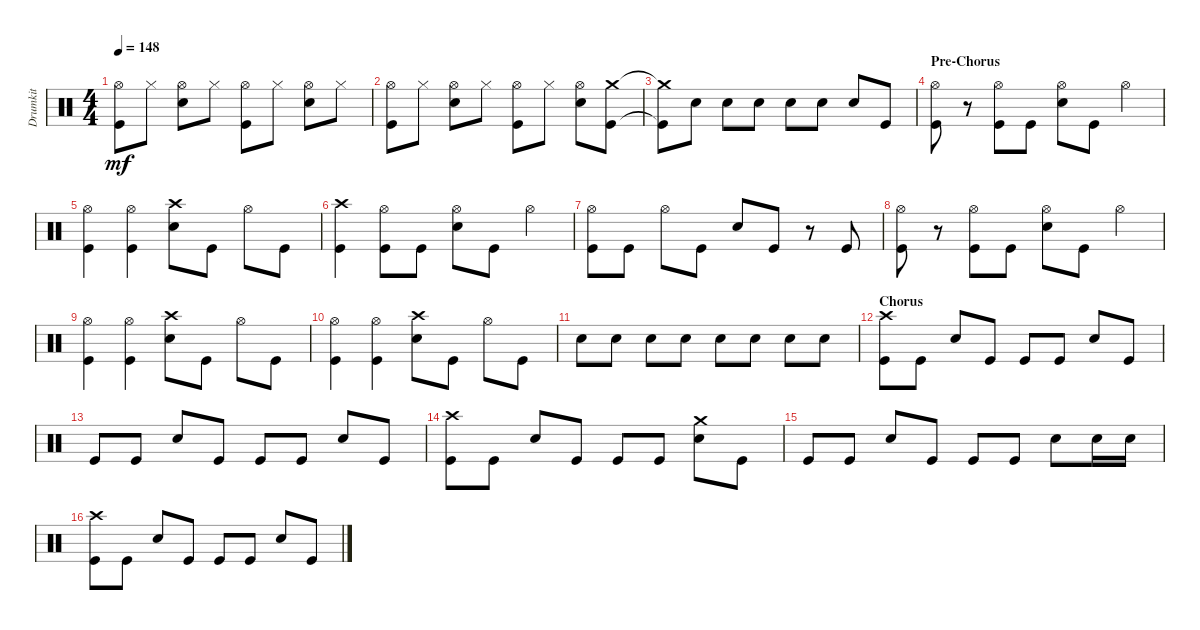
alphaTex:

\track ("Drumkit" "Drumkit") {instrument percussion}
\staff {score}
\articulation defaults
\ts (4 4)
\tempo 148
\clef neutral
\ks c
("Kick (hit)" "Hi-Hat (open)").8{dy mf} "Hi-Hat (closed)".8 ("Snare (hit) 2" "Hi-Hat (open)").8 "Hi-Hat (closed)".8 ("Kick (hit)" "Hi-Hat (open)").8 "Hi-Hat (closed)".8 ("Snare (hit) 2" "Hi-Hat (open)").8 "Hi-Hat (closed)".8 |
("Kick (hit)" "Hi-Hat (open)").8 "Hi-Hat (closed)".8 ("Snare (hit) 2" "Hi-Hat (open)").8 "Hi-Hat (closed)".8 ("Kick (hit)" "Hi-Hat (open)").8 "Hi-Hat (closed)".8 ("Snare (hit) 2" "Hi-Hat (open)").8 ("Crash medium (hit)" "Kick (hit)").8 |
("Crash medium (hit)"{t} "Kick (hit)"{t}).8 "Snare (hit) 2".8 "Snare (hit) 2".8 "Snare (hit) 2".8 "Snare (hit) 2".8 "Snare (hit) 2".8 "Snare (hit) 2".8 "Kick (hit)".8 |
\section ("" "Pre-Chorus")
("Kick (hit)" "Hi-Hat (open)").8 r.8 ("Hi-Hat (open)" "Kick (hit)").8 "Kick (hit)".8 ("Snare (hit) 2" "Hi-Hat (open)").8 "Kick (hit)".8 "Hi-Hat (open)".4 |
("Kick (hit)" "Hi-Hat (open)").4 ("Kick (hit)" "Hi-Hat (open)").4 ("Snare (hit) 2" "Crash high (hit)").8 "Kick (hit)".8 "Hi-Hat (open)".8 "Kick (hit)".8 |
("Kick (hit)" "Crash high (hit)").4 ("Kick (hit)" "Hi-Hat (open)").8 "Kick (hit)".8 ("Snare (hit) 2" "Hi-Hat (open)").8 "Kick (hit)".8 "Hi-Hat (open)".4 |
("Kick (hit)" "Hi-Hat (open)").8 "Kick (hit)".8 "Hi-Hat (open)".8 "Kick (hit)".8 "Snare (hit) 2".8 "Kick (hit)".8 r.8 "Kick (hit)".8 |
("Kick (hit)" "Hi-Hat (open)").8 r.8 ("Hi-Hat (open)" "Kick (hit)").8 "Kick (hit)".8 ("Snare (hit) 2" "Hi-Hat (open)").8 "Kick (hit)".8 "Hi-Hat (open)".4 |
("Kick (hit)" "Hi-Hat (open)").4 ("Kick (hit)" "Hi-Hat (open)").4 ("Snare (hit) 2" "Crash high (hit)").8 "Kick (hit)".8 "Hi-Hat (open)".8 "Kick (hit)".8 |
("Kick (hit)" "Hi-Hat (open)").4 ("Kick (hit)" "Hi-Hat (open)").4 ("Snare (hit) 2" "Crash high (hit)").8 "Kick (hit)".8 "Hi-Hat (open)".8 "Kick (hit)".8 |
"Snare (hit) 2".8 "Snare (hit) 2".8 "Snare (hit) 2".8 "Snare (hit) 2".8 "Snare (hit) 2".8 "Snare (hit) 2".8 "Snare (hit) 2".8 "Snare (hit) 2".8 |
\section ("" "Chorus")
("Kick (hit)" "Crash high (hit)").8 "Kick (hit)".8 "Snare (hit) 2".8 "Kick (hit)".8 "Kick (hit)".8 "Kick (hit)".8 "Snare (hit) 2".8 "Kick (hit)".8 |
"Kick (hit)".8 "Kick (hit)".8 "Snare (hit) 2".8 "Kick (hit)".8 "Kick (hit)".8 "Kick (hit)".8 "Snare (hit) 2".8 "Kick (hit)".8 |
("Kick (hit)" "Crash high (hit)").8 "Kick (hit)".8 "Snare (hit) 2".8 "Kick (hit)".8 "Kick (hit)".8 "Kick (hit)".8 ("Snare (hit) 2" "Crash medium (hit)").8 "Kick (hit)".8 |
"Kick (hit)".8 "Kick (hit)".8 "Snare (hit) 2".8 "Kick (hit)".8 "Kick (hit)".8 "Kick (hit)".8 "Snare (hit) 2".8 "Snare (hit) 2".16 "Snare (hit) 2".16 |
("Kick (hit)" "Crash high (hit)").8 "Kick (hit)".8 "Snare (hit) 2".8 "Kick (hit)".8 "Kick (hit)".8 "Kick (hit)".8 "Snare (hit) 2".8 "Kick (hit)".8
